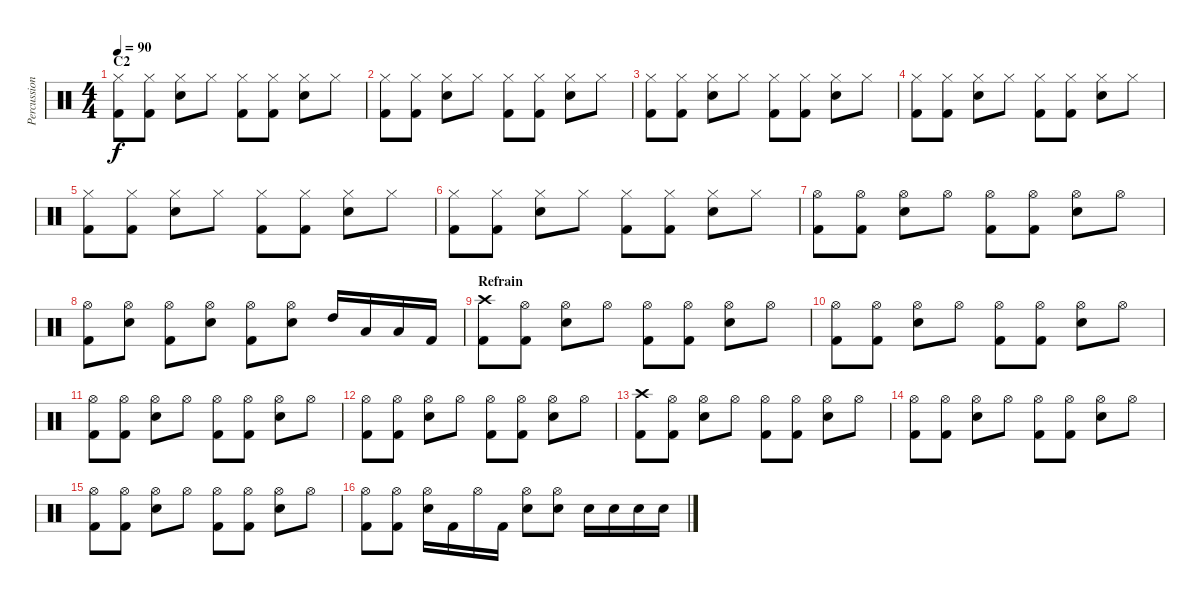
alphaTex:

\track ("Percussions" "Percussion") {instrument percussion}
\staff {score}
\articulation defaults
\ts (4 4)
\section ("" "C2")
\tempo 90
\clef neutral
\ks c
("Hi-Hat (closed)" "Kick (hit) 2").8{dy f} ("Hi-Hat (closed)" "Kick (hit) 2").8 ("Hi-Hat (closed)" "Electric Snare (hit)").8 "Hi-Hat (closed)".8 ("Hi-Hat (closed)" "Kick (hit) 2").8 ("Hi-Hat (closed)" "Kick (hit) 2").8 ("Hi-Hat (closed)" "Electric Snare (hit)").8 "Hi-Hat (closed)".8 |
("Hi-Hat (closed)" "Kick (hit) 2").8 ("Hi-Hat (closed)" "Kick (hit) 2").8 ("Hi-Hat (closed)" "Electric Snare (hit)").8 "Hi-Hat (closed)".8 ("Hi-Hat (closed)" "Kick (hit) 2").8 ("Hi-Hat (closed)" "Kick (hit) 2").8 ("Hi-Hat (closed)" "Electric Snare (hit)").8 "Hi-Hat (closed)".8 |
("Hi-Hat (closed)" "Kick (hit) 2").8 ("Hi-Hat (closed)" "Kick (hit) 2").8 ("Hi-Hat (closed)" "Electric Snare (hit)").8 "Hi-Hat (closed)".8 ("Hi-Hat (closed)" "Kick (hit) 2").8 ("Hi-Hat (closed)" "Kick (hit) 2").8 ("Hi-Hat (closed)" "Electric Snare (hit)").8 "Hi-Hat (closed)".8 |
("Hi-Hat (closed)" "Kick (hit) 2").8 ("Hi-Hat (closed)" "Kick (hit) 2").8 ("Hi-Hat (closed)" "Electric Snare (hit)").8 "Hi-Hat (closed)".8 ("Hi-Hat (closed)" "Kick (hit) 2").8 ("Hi-Hat (closed)" "Kick (hit) 2").8 ("Hi-Hat (closed)" "Electric Snare (hit)").8 "Hi-Hat (closed)".8 |
("Hi-Hat (closed)" "Kick (hit) 2").8 ("Hi-Hat (closed)" "Kick (hit) 2").8 ("Hi-Hat (closed)" "Electric Snare (hit)").8 "Hi-Hat (closed)".8 ("Hi-Hat (closed)" "Kick (hit) 2").8 ("Hi-Hat (closed)" "Kick (hit) 2").8 ("Hi-Hat (closed)" "Electric Snare (hit)").8 "Hi-Hat (closed)".8 |
("Hi-Hat (closed)" "Kick (hit) 2").8 ("Hi-Hat (closed)" "Kick (hit) 2").8 ("Hi-Hat (closed)" "Electric Snare (hit)").8 "Hi-Hat (closed)".8 ("Hi-Hat (closed)" "Kick (hit) 2").8 ("Hi-Hat (closed)" "Kick (hit) 2").8 ("Hi-Hat (closed)" "Electric Snare (hit)").8 "Hi-Hat (closed)".8 |
("Hi-Hat (open)" "Kick (hit) 2").8 ("Hi-Hat (open)" "Kick (hit) 2").8 ("Hi-Hat (open)" "Snare (hit) 2").8 "Hi-Hat (open)".8 ("Hi-Hat (open)" "Kick (hit) 2").8 ("Hi-Hat (open)" "Kick (hit) 2").8 ("Hi-Hat (open)" "Snare (hit) 2").8 "Hi-Hat (open)".8 |
("Hi-Hat (open)" "Kick (hit) 2").8 ("Hi-Hat (open)" "Snare (hit) 2").8 ("Hi-Hat (open)" "Kick (hit) 2").8 ("Hi-Hat (open)" "Snare (hit) 2").8 ("Hi-Hat (open)" "Kick (hit) 2").8 ("Hi-Hat (open)" "Snare (hit) 2").8 "High Tom (hit)".16 "Low Tom (hit)".16 "Low Floor Tom (hit)".16 "Kick (hit) 2".16 |
\section ("" "Refrain")
("Crash high (hit)" "Kick (hit) 2").8 ("Hi-Hat (open)" "Kick (hit) 2").8 ("Hi-Hat (open)" "Snare (hit) 2").8 "Hi-Hat (open)".8 ("Hi-Hat (open)" "Kick (hit) 2").8 ("Hi-Hat (open)" "Kick (hit) 2").8 ("Hi-Hat (open)" "Snare (hit) 2").8 "Hi-Hat (open)".8 |
("Hi-Hat (open)" "Kick (hit) 2").8 ("Hi-Hat (open)" "Kick (hit) 2").8 ("Hi-Hat (open)" "Snare (hit) 2").8 "Hi-Hat (open)".8 ("Hi-Hat (open)" "Kick (hit) 2").8 ("Hi-Hat (open)" "Kick (hit) 2").8 ("Hi-Hat (open)" "Snare (hit) 2").8 "Hi-Hat (open)".8 |
("Hi-Hat (open)" "Kick (hit) 2").8 ("Hi-Hat (open)" "Kick (hit) 2").8 ("Hi-Hat (open)" "Snare (hit) 2").8 "Hi-Hat (open)".8 ("Hi-Hat (open)" "Kick (hit) 2").8 ("Hi-Hat (open)" "Kick (hit) 2").8 ("Hi-Hat (open)" "Snare (hit) 2").8 "Hi-Hat (open)".8 |
("Hi-Hat (open)" "Kick (hit) 2").8 ("Hi-Hat (open)" "Kick (hit) 2").8 ("Hi-Hat (open)" "Snare (hit) 2").8 "Hi-Hat (open)".8 ("Hi-Hat (open)" "Kick (hit) 2").8 ("Hi-Hat (open)" "Kick (hit) 2").8 ("Hi-Hat (open)" "Snare (hit) 2").8 "Hi-Hat (open)".8 |
("Crash high (hit)" "Kick (hit) 2").8 ("Hi-Hat (open)" "Kick (hit) 2").8 ("Hi-Hat (open)" "Snare (hit) 2").8 "Hi-Hat (open)".8 ("Hi-Hat (open)" "Kick (hit) 2").8 ("Hi-Hat (open)" "Kick (hit) 2").8 ("Hi-Hat (open)" "Snare (hit) 2").8 "Hi-Hat (open)".8 |
("Hi-Hat (open)" "Kick (hit) 2").8 ("Hi-Hat (open)" "Kick (hit) 2").8 ("Hi-Hat (open)" "Snare (hit) 2").8 "Hi-Hat (open)".8 ("Hi-Hat (open)" "Kick (hit) 2").8 ("Hi-Hat (open)" "Kick (hit) 2").8 ("Hi-Hat (open)" "Snare (hit) 2").8 "Hi-Hat (open)".8 |
("Hi-Hat (open)" "Kick (hit) 2").8 ("Hi-Hat (open)" "Kick (hit) 2").8 ("Hi-Hat (open)" "Snare (hit) 2").8 "Hi-Hat (open)".8 ("Hi-Hat (open)" "Kick (hit) 2").8 ("Hi-Hat (open)" "Kick (hit) 2").8 ("Hi-Hat (open)" "Snare (hit) 2").8 "Hi-Hat (open)".8 |
("Hi-Hat (open)" "Kick (hit) 2").8 ("Hi-Hat (open)" "Kick (hit) 2").8 ("Hi-Hat (open)" "Snare (hit) 2").16 "Kick (hit) 2".16 "Hi-Hat (open)".16 "Kick (hit) 2".16 ("Hi-Hat (open)" "Snare (hit) 2").8 ("Hi-Hat (open)" "Snare (hit) 2").8 "Snare (hit) 2".16 "Snare (hit) 2".16 "Snare (hit) 2".16 "Snare (hit) 2".16
